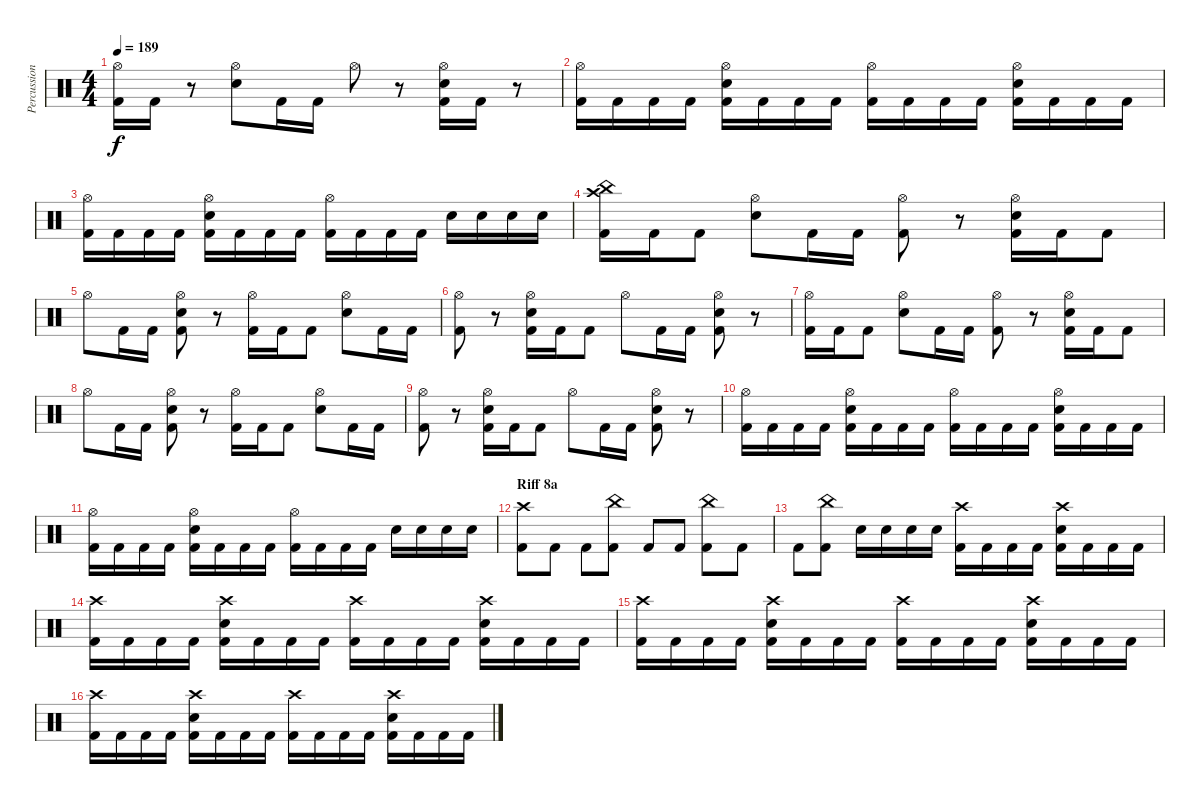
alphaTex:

\track ("Percussion" "Percussion") {instrument percussion}
\staff {score}
\articulation defaults
\ts (4 4)
\tempo 189
\clef neutral
\ks c
("Hi-Hat (open)" "Kick (hit) 2").16{dy f} "Kick (hit) 2".16 r.8 ("Hi-Hat (open)" "Electric Snare (hit)").8 "Kick (hit) 2".16 "Kick (hit) 2".16 "Hi-Hat (open)".8 r.8 ("Hi-Hat (open)" "Electric Snare (hit)" "Kick (hit) 2").16 "Kick (hit) 2".16 r.8 |
("Hi-Hat (open)" "Kick (hit) 2").16 "Kick (hit) 2".16 "Kick (hit) 2".16 "Kick (hit) 2".16 ("Hi-Hat (open)" "Electric Snare (hit)" "Kick (hit) 2").16 "Kick (hit) 2".16 "Kick (hit) 2".16 "Kick (hit) 2".16 ("Hi-Hat (open)" "Kick (hit) 2").16 "Kick (hit) 2".16 "Kick (hit) 2".16 "Kick (hit) 2".16 ("Hi-Hat (open)" "Electric Snare (hit)" "Kick (hit) 2").16 "Kick (hit) 2".16 "Kick (hit) 2".16 "Kick (hit) 2".16 |
("Hi-Hat (open)" "Kick (hit) 2").16 "Kick (hit) 2".16 "Kick (hit) 2".16 "Kick (hit) 2".16 ("Hi-Hat (open)" "Electric Snare (hit)" "Kick (hit) 2").16 "Kick (hit) 2".16 "Kick (hit) 2".16 "Kick (hit) 2".16 ("Hi-Hat (open)" "Kick (hit) 2").16 "Kick (hit) 2".16 "Kick (hit) 2".16 "Kick (hit) 2".16 "Electric Snare (hit)".16 "Electric Snare (hit)".16 "Electric Snare (hit)".16 "Electric Snare (hit)".16 |
("China (hit)" "Crash high (hit)" "Kick (hit) 2").16 "Kick (hit) 2".16 "Kick (hit) 2".8 ("Hi-Hat (open)" "Electric Snare (hit)").8 "Kick (hit) 2".16 "Kick (hit) 2".16 ("Hi-Hat (open)" "Kick (hit) 2").8 r.8 ("Hi-Hat (open)" "Electric Snare (hit)" "Kick (hit) 2").16 "Kick (hit) 2".16 "Kick (hit) 2".8 |
"Hi-Hat (open)".8 "Kick (hit) 2".16 "Kick (hit) 2".16 ("Hi-Hat (open)" "Electric Snare (hit)" "Kick (hit) 2").8 r.8 ("Hi-Hat (open)" "Kick (hit) 2").16 "Kick (hit) 2".16 "Kick (hit) 2".8 ("Hi-Hat (open)" "Electric Snare (hit)").8 "Kick (hit) 2".16 "Kick (hit) 2".16 |
("Hi-Hat (open)" "Kick (hit) 2").8 r.8 ("Hi-Hat (open)" "Electric Snare (hit)" "Kick (hit) 2").16 "Kick (hit) 2".16 "Kick (hit) 2".8 "Hi-Hat (open)".8 "Kick (hit) 2".16 "Kick (hit) 2".16 ("Hi-Hat (open)" "Electric Snare (hit)" "Kick (hit) 2").8 r.8 |
("Hi-Hat (open)" "Kick (hit) 2").16 "Kick (hit) 2".16 "Kick (hit) 2".8 ("Hi-Hat (open)" "Electric Snare (hit)").8 "Kick (hit) 2".16 "Kick (hit) 2".16 ("Hi-Hat (open)" "Kick (hit) 2").8 r.8 ("Hi-Hat (open)" "Electric Snare (hit)" "Kick (hit) 2").16 "Kick (hit) 2".16 "Kick (hit) 2".8 |
"Hi-Hat (open)".8 "Kick (hit) 2".16 "Kick (hit) 2".16 ("Hi-Hat (open)" "Electric Snare (hit)" "Kick (hit) 2").8 r.8 ("Hi-Hat (open)" "Kick (hit) 2").16 "Kick (hit) 2".16 "Kick (hit) 2".8 ("Hi-Hat (open)" "Electric Snare (hit)").8 "Kick (hit) 2".16 "Kick (hit) 2".16 |
("Hi-Hat (open)" "Kick (hit) 2").8 r.8 ("Hi-Hat (open)" "Electric Snare (hit)" "Kick (hit) 2").16 "Kick (hit) 2".16 "Kick (hit) 2".8 "Hi-Hat (open)".8 "Kick (hit) 2".16 "Kick (hit) 2".16 ("Hi-Hat (open)" "Electric Snare (hit)" "Kick (hit) 2").8 r.8 |
("Hi-Hat (open)" "Kick (hit) 2").16 "Kick (hit) 2".16 "Kick (hit) 2".16 "Kick (hit) 2".16 ("Hi-Hat (open)" "Electric Snare (hit)" "Kick (hit) 2").16 "Kick (hit) 2".16 "Kick (hit) 2".16 "Kick (hit) 2".16 ("Hi-Hat (open)" "Kick (hit) 2").16 "Kick (hit) 2".16 "Kick (hit) 2".16 "Kick (hit) 2".16 ("Hi-Hat (open)" "Electric Snare (hit)" "Kick (hit) 2").16 "Kick (hit) 2".16 "Kick (hit) 2".16 "Kick (hit) 2".16 |
("Hi-Hat (open)" "Kick (hit) 2").16 "Kick (hit) 2".16 "Kick (hit) 2".16 "Kick (hit) 2".16 ("Hi-Hat (open)" "Electric Snare (hit)" "Kick (hit) 2").16 "Kick (hit) 2".16 "Kick (hit) 2".16 "Kick (hit) 2".16 ("Hi-Hat (open)" "Kick (hit) 2").16 "Kick (hit) 2".16 "Kick (hit) 2".16 "Kick (hit) 2".16 "Electric Snare (hit)".16 "Electric Snare (hit)".16 "Electric Snare (hit)".16 "Electric Snare (hit)".16 |
\section ("" "Riff 8a")
("Crash high (hit)" "Kick (hit) 2").8 "Kick (hit) 2".8 "Kick (hit) 2".8 ("China (hit)" "Kick (hit) 2").8 "Kick (hit) 2".8 "Kick (hit) 2".8 ("China (hit)" "Kick (hit) 2").8 "Kick (hit) 2".8 |
"Kick (hit) 2".8 ("China (hit)" "Kick (hit) 2").8 "Electric Snare (hit)".16 "Electric Snare (hit)".16 "Electric Snare (hit)".16 "Electric Snare (hit)".16 ("Crash high (hit)" "Kick (hit) 2").16 "Kick (hit) 2".16 "Kick (hit) 2".16 "Kick (hit) 2".16 ("Crash high (hit)" "Electric Snare (hit)" "Kick (hit) 2").16 "Kick (hit) 2".16 "Kick (hit) 2".16 "Kick (hit) 2".16 |
("Crash high (hit)" "Kick (hit) 2").16 "Kick (hit) 2".16 "Kick (hit) 2".16 "Kick (hit) 2".16 ("Crash high (hit)" "Electric Snare (hit)" "Kick (hit) 2").16 "Kick (hit) 2".16 "Kick (hit) 2".16 "Kick (hit) 2".16 ("Crash high (hit)" "Kick (hit) 2").16 "Kick (hit) 2".16 "Kick (hit) 2".16 "Kick (hit) 2".16 ("Crash high (hit)" "Electric Snare (hit)" "Kick (hit) 2").16 "Kick (hit) 2".16 "Kick (hit) 2".16 "Kick (hit) 2".16 |
("Crash high (hit)" "Kick (hit) 2").16 "Kick (hit) 2".16 "Kick (hit) 2".16 "Kick (hit) 2".16 ("Crash high (hit)" "Electric Snare (hit)" "Kick (hit) 2").16 "Kick (hit) 2".16 "Kick (hit) 2".16 "Kick (hit) 2".16 ("Crash high (hit)" "Kick (hit) 2").16 "Kick (hit) 2".16 "Kick (hit) 2".16 "Kick (hit) 2".16 ("Crash high (hit)" "Electric Snare (hit)" "Kick (hit) 2").16 "Kick (hit) 2".16 "Kick (hit) 2".16 "Kick (hit) 2".16 |
("Crash high (hit)" "Kick (hit) 2").16 "Kick (hit) 2".16 "Kick (hit) 2".16 "Kick (hit) 2".16 ("Crash high (hit)" "Electric Snare (hit)" "Kick (hit) 2").16 "Kick (hit) 2".16 "Kick (hit) 2".16 "Kick (hit) 2".16 ("Crash high (hit)" "Kick (hit) 2").16 "Kick (hit) 2".16 "Kick (hit) 2".16 "Kick (hit) 2".16 ("Crash high (hit)" "Electric Snare (hit)" "Kick (hit) 2").16 "Kick (hit) 2".16 "Kick (hit) 2".16 "Kick (hit) 2".16
